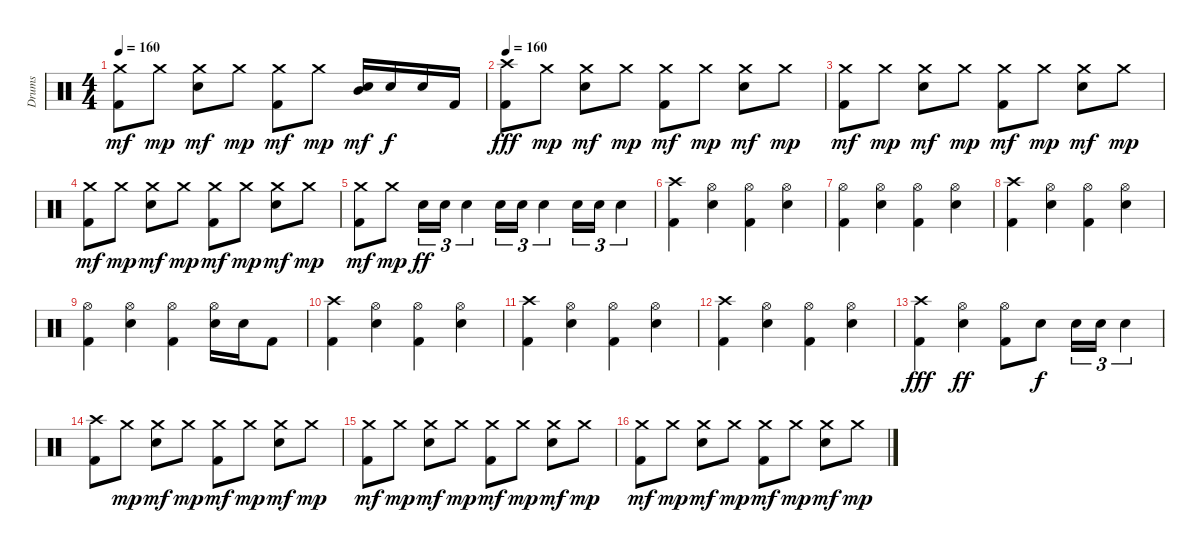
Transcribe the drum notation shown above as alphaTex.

\track ("Drums" "Drums") {instrument percussion}
\staff {score}
\articulation defaults
\ts (4 4)
\tempo 160
\clef neutral
\ks c
("Crash medium (hit)" "Kick (hit) 2").8{dy mf} "Crash medium (hit)".8{dy mp} ("Crash medium (hit)" "Snare (hit) 2").8{dy mf} "Crash medium (hit)".8{dy mp} ("Crash medium (hit)" "Kick (hit) 2").8{dy mf} "Crash medium (hit)".8{dy mp} ("Mid Tom (hit)" "Snare (hit) 2").16{dy mf} "Snare (hit) 2".16{dy f} "Snare (hit) 2".16 "Kick (hit) 2".16 |
\tempo 160
("Crash high (hit)" "Kick (hit) 2").8{dy fff} "Crash medium (hit)".8{dy mp} ("Crash medium (hit)" "Snare (hit) 2").8{dy mf} "Crash medium (hit)".8{dy mp} ("Crash medium (hit)" "Kick (hit) 2").8{dy mf} "Crash medium (hit)".8{dy mp} ("Crash medium (hit)" "Snare (hit) 2").8{dy mf} "Crash medium (hit)".8{dy mp} |
("Crash medium (hit)" "Kick (hit) 2").8{dy mf} "Crash medium (hit)".8{dy mp} ("Crash medium (hit)" "Snare (hit) 2").8{dy mf} "Crash medium (hit)".8{dy mp} ("Crash medium (hit)" "Kick (hit) 2").8{dy mf} "Crash medium (hit)".8{dy mp} ("Crash medium (hit)" "Snare (hit) 2").8{dy mf} "Crash medium (hit)".8{dy mp} |
("Crash medium (hit)" "Kick (hit) 2").8{dy mf} "Crash medium (hit)".8{dy mp} ("Crash medium (hit)" "Snare (hit) 2").8{dy mf} "Crash medium (hit)".8{dy mp} ("Crash medium (hit)" "Kick (hit) 2").8{dy mf} "Crash medium (hit)".8{dy mp} ("Crash medium (hit)" "Snare (hit) 2").8{dy mf} "Crash medium (hit)".8{dy mp} |
("Crash medium (hit)" "Kick (hit) 2").8{dy mf} "Crash medium (hit)".8{dy mp} "Snare (hit) 2".16{tu (3 2) dy ff} "Snare (hit) 2".16{tu (3 2)} "Snare (hit) 2".4{tu (3 2)} "Snare (hit) 2".16{tu (3 2)} "Snare (hit) 2".16{tu (3 2)} "Snare (hit) 2".4{tu (3 2)} "Snare (hit) 2".16{tu (3 2)} "Snare (hit) 2".16{tu (3 2)} "Snare (hit) 2".4{tu (3 2)} |
("Crash high (hit)" "Kick (hit) 2").4 ("Hi-Hat (open)" "Snare (hit) 2").4 ("Hi-Hat (open)" "Kick (hit) 2").4 ("Hi-Hat (open)" "Snare (hit) 2").4 |
("Hi-Hat (open)" "Kick (hit) 2").4 ("Hi-Hat (open)" "Snare (hit) 2").4 ("Hi-Hat (open)" "Kick (hit) 2").4 ("Hi-Hat (open)" "Snare (hit) 2").4 |
("Crash high (hit)" "Kick (hit) 2").4 ("Hi-Hat (open)" "Snare (hit) 2").4 ("Hi-Hat (open)" "Kick (hit) 2").4 ("Hi-Hat (open)" "Snare (hit) 2").4 |
("Hi-Hat (open)" "Kick (hit) 2").4 ("Hi-Hat (open)" "Snare (hit) 2").4 ("Hi-Hat (open)" "Kick (hit) 2").4 ("Hi-Hat (open)" "Snare (hit) 2").16 "Snare (hit) 2".16 "Kick (hit) 2".8 |
("Crash high (hit)" "Kick (hit) 2").4 ("Hi-Hat (open)" "Snare (hit) 2").4 ("Hi-Hat (open)" "Kick (hit) 2").4 ("Hi-Hat (open)" "Snare (hit) 2").4 |
("Crash high (hit)" "Kick (hit) 2").4 ("Hi-Hat (open)" "Snare (hit) 2").4 ("Hi-Hat (open)" "Kick (hit) 2").4 ("Hi-Hat (open)" "Snare (hit) 2").4 |
("Crash high (hit)" "Kick (hit) 2").4 ("Hi-Hat (open)" "Snare (hit) 2").4 ("Hi-Hat (open)" "Kick (hit) 2").4 ("Hi-Hat (open)" "Snare (hit) 2").4 |
("Crash high (hit)" "Kick (hit) 2").4{dy fff} ("Hi-Hat (open)" "Snare (hit) 2").4{dy ff} ("Hi-Hat (open)" "Kick (hit) 2").8 "Snare (hit) 2".8{dy f} "Snare (hit) 2".16{tu (3 2)} "Snare (hit) 2".16{tu (3 2)} "Snare (hit) 2".4{tu (3 2)} |
("Crash high (hit)" "Kick (hit) 2").8 "Crash medium (hit)".8{dy mp} ("Crash medium (hit)" "Snare (hit) 2").8{dy mf} "Crash medium (hit)".8{dy mp} ("Crash medium (hit)" "Kick (hit) 2").8{dy mf} "Crash medium (hit)".8{dy mp} ("Crash medium (hit)" "Snare (hit) 2").8{dy mf} "Crash medium (hit)".8{dy mp} |
("Crash medium (hit)" "Kick (hit) 2").8{dy mf} "Crash medium (hit)".8{dy mp} ("Crash medium (hit)" "Snare (hit) 2").8{dy mf} "Crash medium (hit)".8{dy mp} ("Crash medium (hit)" "Kick (hit) 2").8{dy mf} "Crash medium (hit)".8{dy mp} ("Crash medium (hit)" "Snare (hit) 2").8{dy mf} "Crash medium (hit)".8{dy mp} |
("Crash medium (hit)" "Kick (hit) 2").8{dy mf} "Crash medium (hit)".8{dy mp} ("Crash medium (hit)" "Snare (hit) 2").8{dy mf} "Crash medium (hit)".8{dy mp} ("Crash medium (hit)" "Kick (hit) 2").8{dy mf} "Crash medium (hit)".8{dy mp} ("Crash medium (hit)" "Snare (hit) 2").8{dy mf} "Crash medium (hit)".8{dy mp}
